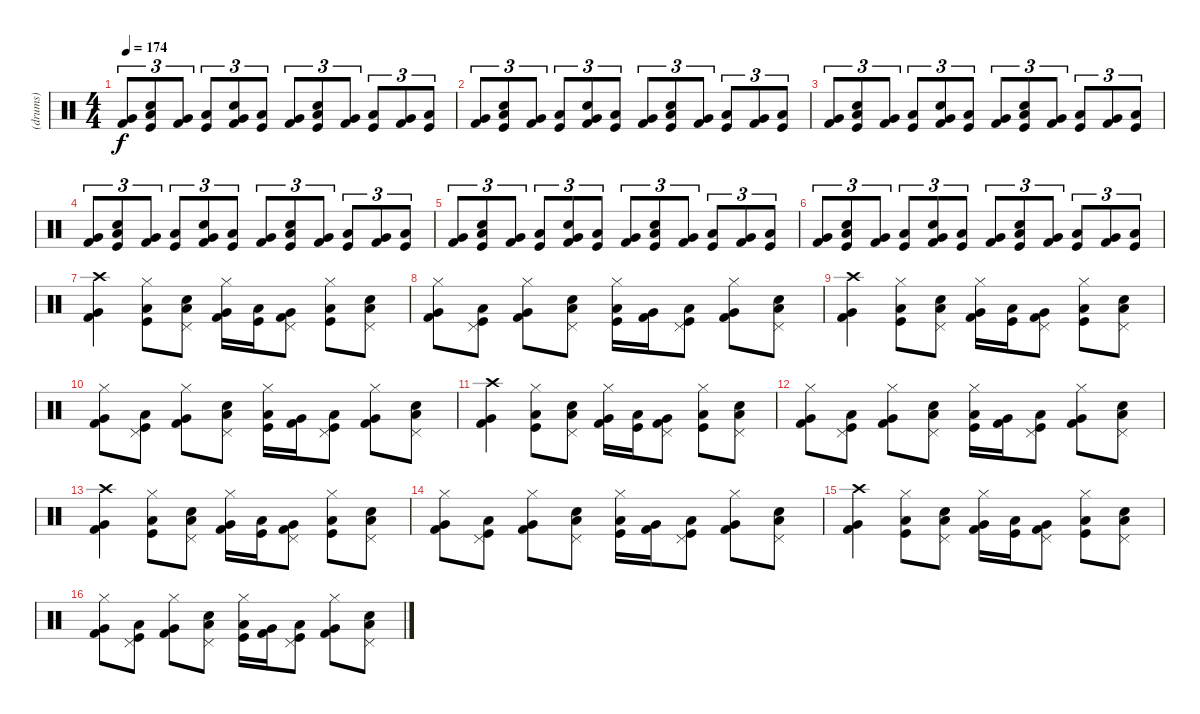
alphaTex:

\track ("(drums)" "(drums)") {instrument percussion}
\staff {score}
\articulation defaults
\ts (4 4)
\tempo 174
\clef neutral
\ks c
("Kick (hit) 2" "Very Low Tom (hit)").8{tu (3 2) dy f} ("Electric Snare (hit)" "Kick (hit)" "Low Tom (hit)").8{tu (3 2)} ("Kick (hit) 2" "Very Low Tom (hit)").8{tu (3 2)} ("Kick (hit)" "Low Tom (hit)").8{tu (3 2)} ("Electric Snare (hit)" "Kick (hit) 2" "Very Low Tom (hit)").8{tu (3 2)} ("Kick (hit)" "Low Tom (hit)").8{tu (3 2)} ("Kick (hit) 2" "Very Low Tom (hit)").8{tu (3 2)} ("Electric Snare (hit)" "Kick (hit)" "Low Tom (hit)").8{tu (3 2)} ("Kick (hit) 2" "Very Low Tom (hit)").8{tu (3 2)} ("Kick (hit)" "Low Tom (hit)").8{tu (3 2)} ("Kick (hit) 2" "Very Low Tom (hit)").8{tu (3 2)} ("Kick (hit)" "Low Tom (hit)").8{tu (3 2)} |
("Kick (hit) 2" "Very Low Tom (hit)").8{tu (3 2)} ("Electric Snare (hit)" "Kick (hit)" "Low Tom (hit)").8{tu (3 2)} ("Kick (hit) 2" "Very Low Tom (hit)").8{tu (3 2)} ("Kick (hit)" "Low Tom (hit)").8{tu (3 2)} ("Electric Snare (hit)" "Kick (hit) 2" "Very Low Tom (hit)").8{tu (3 2)} ("Kick (hit)" "Low Tom (hit)").8{tu (3 2)} ("Kick (hit) 2" "Very Low Tom (hit)").8{tu (3 2)} ("Electric Snare (hit)" "Kick (hit)" "Low Tom (hit)").8{tu (3 2)} ("Kick (hit) 2" "Very Low Tom (hit)").8{tu (3 2)} ("Kick (hit)" "Low Tom (hit)").8{tu (3 2)} ("Kick (hit) 2" "Very Low Tom (hit)").8{tu (3 2)} ("Kick (hit)" "Low Tom (hit)").8{tu (3 2)} |
("Kick (hit) 2" "Very Low Tom (hit)").8{tu (3 2)} ("Electric Snare (hit)" "Kick (hit)" "Low Tom (hit)").8{tu (3 2)} ("Kick (hit) 2" "Very Low Tom (hit)").8{tu (3 2)} ("Kick (hit)" "Low Tom (hit)").8{tu (3 2)} ("Electric Snare (hit)" "Kick (hit) 2" "Very Low Tom (hit)").8{tu (3 2)} ("Kick (hit)" "Low Tom (hit)").8{tu (3 2)} ("Kick (hit) 2" "Very Low Tom (hit)").8{tu (3 2)} ("Electric Snare (hit)" "Kick (hit)" "Low Tom (hit)").8{tu (3 2)} ("Kick (hit) 2" "Very Low Tom (hit)").8{tu (3 2)} ("Kick (hit)" "Low Tom (hit)").8{tu (3 2)} ("Kick (hit) 2" "Very Low Tom (hit)").8{tu (3 2)} ("Kick (hit)" "Low Tom (hit)").8{tu (3 2)} |
("Kick (hit) 2" "Very Low Tom (hit)").8{tu (3 2)} ("Electric Snare (hit)" "Kick (hit)" "Low Tom (hit)").8{tu (3 2)} ("Kick (hit) 2" "Very Low Tom (hit)").8{tu (3 2)} ("Kick (hit)" "Low Tom (hit)").8{tu (3 2)} ("Electric Snare (hit)" "Kick (hit) 2" "Very Low Tom (hit)").8{tu (3 2)} ("Kick (hit)" "Low Tom (hit)").8{tu (3 2)} ("Kick (hit) 2" "Very Low Tom (hit)").8{tu (3 2)} ("Electric Snare (hit)" "Kick (hit)" "Low Tom (hit)").8{tu (3 2)} ("Kick (hit) 2" "Very Low Tom (hit)").8{tu (3 2)} ("Kick (hit)" "Low Tom (hit)").8{tu (3 2)} ("Kick (hit) 2" "Very Low Tom (hit)").8{tu (3 2)} ("Kick (hit)" "Low Tom (hit)").8{tu (3 2)} |
("Kick (hit) 2" "Very Low Tom (hit)").8{tu (3 2)} ("Electric Snare (hit)" "Kick (hit)" "Low Tom (hit)").8{tu (3 2)} ("Kick (hit) 2" "Very Low Tom (hit)").8{tu (3 2)} ("Kick (hit)" "Low Tom (hit)").8{tu (3 2)} ("Electric Snare (hit)" "Kick (hit) 2" "Very Low Tom (hit)").8{tu (3 2)} ("Kick (hit)" "Low Tom (hit)").8{tu (3 2)} ("Kick (hit) 2" "Very Low Tom (hit)").8{tu (3 2)} ("Electric Snare (hit)" "Kick (hit)" "Low Tom (hit)").8{tu (3 2)} ("Kick (hit) 2" "Very Low Tom (hit)").8{tu (3 2)} ("Kick (hit)" "Low Tom (hit)").8{tu (3 2)} ("Kick (hit) 2" "Very Low Tom (hit)").8{tu (3 2)} ("Kick (hit)" "Low Tom (hit)").8{tu (3 2)} |
("Kick (hit) 2" "Very Low Tom (hit)").8{tu (3 2)} ("Electric Snare (hit)" "Kick (hit)" "Low Tom (hit)").8{tu (3 2)} ("Kick (hit) 2" "Very Low Tom (hit)").8{tu (3 2)} ("Kick (hit)" "Low Tom (hit)").8{tu (3 2)} ("Electric Snare (hit)" "Kick (hit) 2" "Very Low Tom (hit)").8{tu (3 2)} ("Kick (hit)" "Low Tom (hit)").8{tu (3 2)} ("Kick (hit) 2" "Very Low Tom (hit)").8{tu (3 2)} ("Electric Snare (hit)" "Kick (hit)" "Low Tom (hit)").8{tu (3 2)} ("Kick (hit) 2" "Very Low Tom (hit)").8{tu (3 2)} ("Kick (hit)" "Low Tom (hit)").8{tu (3 2)} ("Kick (hit) 2" "Very Low Tom (hit)").8{tu (3 2)} ("Kick (hit)" "Low Tom (hit)").8{tu (3 2)} |
("Crash high (hit)" "Kick (hit) 2" "Very Low Tom (hit)").4 ("Hi-Hat (closed)" "Kick (hit)" "Low Tom (hit)").8 ("Pedal Hi-Hat (hit)" "Snare (hit) 2" "Low Floor Tom (hit)").8 ("Hi-Hat (closed)" "Kick (hit) 2" "Very Low Tom (hit)").16 ("Kick (hit)" "Low Tom (hit)").16 ("Pedal Hi-Hat (hit)" "Kick (hit) 2" "Very Low Tom (hit)").8 ("Hi-Hat (closed)" "Kick (hit)" "Low Tom (hit)").8 ("Pedal Hi-Hat (hit)" "Snare (hit) 2" "Low Floor Tom (hit)").8 |
("Hi-Hat (closed)" "Kick (hit) 2" "Very Low Tom (hit)").8 ("Pedal Hi-Hat (hit)" "Kick (hit)" "Low Tom (hit)").8 ("Hi-Hat (closed)" "Kick (hit) 2" "Very Low Tom (hit)").8 ("Pedal Hi-Hat (hit)" "Snare (hit) 2" "Low Floor Tom (hit)").8 ("Hi-Hat (closed)" "Kick (hit)" "Low Tom (hit)").16 ("Kick (hit) 2" "Very Low Tom (hit)").16 ("Pedal Hi-Hat (hit)" "Kick (hit)" "Low Tom (hit)").8 ("Hi-Hat (closed)" "Kick (hit) 2" "Very Low Tom (hit)").8 ("Pedal Hi-Hat (hit)" "Snare (hit) 2" "Low Floor Tom (hit)").8 |
("Crash high (hit)" "Kick (hit) 2" "Very Low Tom (hit)").4 ("Hi-Hat (closed)" "Kick (hit)" "Low Tom (hit)").8 ("Pedal Hi-Hat (hit)" "Snare (hit) 2" "Low Floor Tom (hit)").8 ("Hi-Hat (closed)" "Kick (hit) 2" "Very Low Tom (hit)").16 ("Kick (hit)" "Low Tom (hit)").16 ("Pedal Hi-Hat (hit)" "Kick (hit) 2" "Very Low Tom (hit)").8 ("Hi-Hat (closed)" "Kick (hit)" "Low Tom (hit)").8 ("Pedal Hi-Hat (hit)" "Snare (hit) 2" "Low Floor Tom (hit)").8 |
("Hi-Hat (closed)" "Kick (hit) 2" "Very Low Tom (hit)").8 ("Pedal Hi-Hat (hit)" "Kick (hit)" "Low Tom (hit)").8 ("Hi-Hat (closed)" "Kick (hit) 2" "Very Low Tom (hit)").8 ("Pedal Hi-Hat (hit)" "Snare (hit) 2" "Low Floor Tom (hit)").8 ("Hi-Hat (closed)" "Kick (hit)" "Low Tom (hit)").16 ("Kick (hit) 2" "Very Low Tom (hit)").16 ("Pedal Hi-Hat (hit)" "Kick (hit)" "Low Tom (hit)").8 ("Hi-Hat (closed)" "Kick (hit) 2" "Very Low Tom (hit)").8 ("Pedal Hi-Hat (hit)" "Snare (hit) 2" "Low Floor Tom (hit)").8 |
("Crash high (hit)" "Kick (hit) 2" "Very Low Tom (hit)").4 ("Hi-Hat (closed)" "Kick (hit)" "Low Tom (hit)").8 ("Pedal Hi-Hat (hit)" "Snare (hit) 2" "Low Floor Tom (hit)").8 ("Hi-Hat (closed)" "Kick (hit) 2" "Very Low Tom (hit)").16 ("Kick (hit)" "Low Tom (hit)").16 ("Pedal Hi-Hat (hit)" "Kick (hit) 2" "Very Low Tom (hit)").8 ("Hi-Hat (closed)" "Kick (hit)" "Low Tom (hit)").8 ("Pedal Hi-Hat (hit)" "Snare (hit) 2" "Low Floor Tom (hit)").8 |
("Hi-Hat (closed)" "Kick (hit) 2" "Very Low Tom (hit)").8 ("Pedal Hi-Hat (hit)" "Kick (hit)" "Low Tom (hit)").8 ("Hi-Hat (closed)" "Kick (hit) 2" "Very Low Tom (hit)").8 ("Pedal Hi-Hat (hit)" "Snare (hit) 2" "Low Floor Tom (hit)").8 ("Hi-Hat (closed)" "Kick (hit)" "Low Tom (hit)").16 ("Kick (hit) 2" "Very Low Tom (hit)").16 ("Pedal Hi-Hat (hit)" "Kick (hit)" "Low Tom (hit)").8 ("Hi-Hat (closed)" "Kick (hit) 2" "Very Low Tom (hit)").8 ("Pedal Hi-Hat (hit)" "Snare (hit) 2" "Low Floor Tom (hit)").8 |
("Crash high (hit)" "Kick (hit) 2" "Very Low Tom (hit)").4 ("Hi-Hat (closed)" "Kick (hit)" "Low Tom (hit)").8 ("Pedal Hi-Hat (hit)" "Snare (hit) 2" "Low Floor Tom (hit)").8 ("Hi-Hat (closed)" "Kick (hit) 2" "Very Low Tom (hit)").16 ("Kick (hit)" "Low Tom (hit)").16 ("Pedal Hi-Hat (hit)" "Kick (hit) 2" "Very Low Tom (hit)").8 ("Hi-Hat (closed)" "Kick (hit)" "Low Tom (hit)").8 ("Pedal Hi-Hat (hit)" "Snare (hit) 2" "Low Floor Tom (hit)").8 |
("Hi-Hat (closed)" "Kick (hit) 2" "Very Low Tom (hit)").8 ("Pedal Hi-Hat (hit)" "Kick (hit)" "Low Tom (hit)").8 ("Hi-Hat (closed)" "Kick (hit) 2" "Very Low Tom (hit)").8 ("Pedal Hi-Hat (hit)" "Snare (hit) 2" "Low Floor Tom (hit)").8 ("Hi-Hat (closed)" "Kick (hit)" "Low Tom (hit)").16 ("Kick (hit) 2" "Very Low Tom (hit)").16 ("Pedal Hi-Hat (hit)" "Kick (hit)" "Low Tom (hit)").8 ("Hi-Hat (closed)" "Kick (hit) 2" "Very Low Tom (hit)").8 ("Pedal Hi-Hat (hit)" "Snare (hit) 2" "Low Floor Tom (hit)").8 |
("Crash high (hit)" "Kick (hit) 2" "Very Low Tom (hit)").4 ("Hi-Hat (closed)" "Kick (hit)" "Low Tom (hit)").8 ("Pedal Hi-Hat (hit)" "Snare (hit) 2" "Low Floor Tom (hit)").8 ("Hi-Hat (closed)" "Kick (hit) 2" "Very Low Tom (hit)").16 ("Kick (hit)" "Low Tom (hit)").16 ("Pedal Hi-Hat (hit)" "Kick (hit) 2" "Very Low Tom (hit)").8 ("Hi-Hat (closed)" "Kick (hit)" "Low Tom (hit)").8 ("Pedal Hi-Hat (hit)" "Snare (hit) 2" "Low Floor Tom (hit)").8 |
("Hi-Hat (closed)" "Kick (hit) 2" "Very Low Tom (hit)").8 ("Pedal Hi-Hat (hit)" "Kick (hit)" "Low Tom (hit)").8 ("Hi-Hat (closed)" "Kick (hit) 2" "Very Low Tom (hit)").8 ("Pedal Hi-Hat (hit)" "Snare (hit) 2" "Low Floor Tom (hit)").8 ("Hi-Hat (closed)" "Kick (hit)" "Low Tom (hit)").16 ("Kick (hit) 2" "Very Low Tom (hit)").16 ("Pedal Hi-Hat (hit)" "Kick (hit)" "Low Tom (hit)").8 ("Hi-Hat (closed)" "Kick (hit) 2" "Very Low Tom (hit)").8 ("Pedal Hi-Hat (hit)" "Snare (hit) 2" "Low Floor Tom (hit)").8
